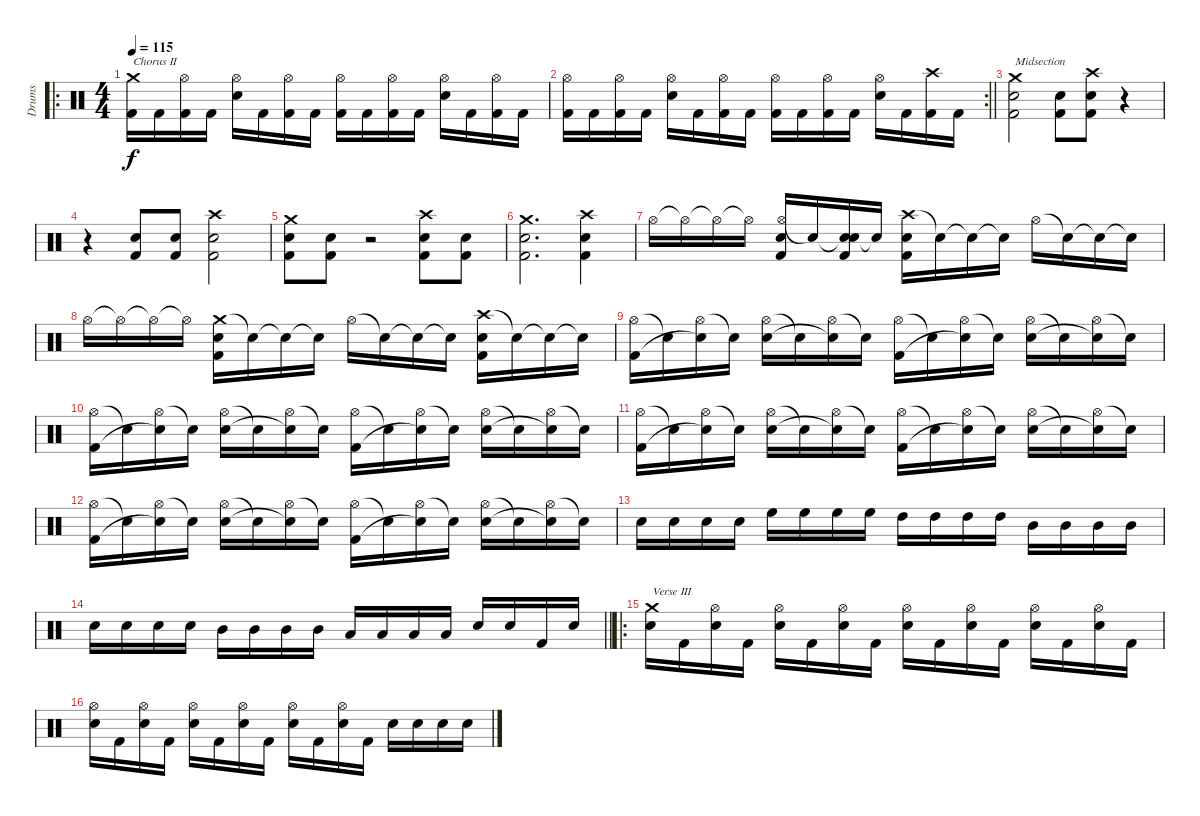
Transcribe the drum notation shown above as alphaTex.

\track ("Drums" "Drums") {instrument percussion}
\staff {score}
\articulation defaults
\ro
\ts (4 4)
\tempo 115
\clef neutral
\ks c
("Crash medium (hit)" "Kick (hit) 2").16{txt "Chorus II" dy f} "Kick (hit) 2".16 ("Hi-Hat (open)" "Kick (hit) 2").16 "Kick (hit) 2".16 ("Hi-Hat (open)" "Electric Snare (hit)").16 "Kick (hit) 2".16 ("Hi-Hat (open)" "Kick (hit) 2").16 "Kick (hit) 2".16 ("Hi-Hat (open)" "Kick (hit) 2").16 "Kick (hit) 2".16 ("Hi-Hat (open)" "Kick (hit) 2").16 "Kick (hit) 2".16 ("Hi-Hat (open)" "Electric Snare (hit)").16 "Kick (hit) 2".16 ("Hi-Hat (open)" "Kick (hit) 2").16 "Kick (hit) 2".16 |
\rc 2
\barLineRight lightlight
("Hi-Hat (open)" "Kick (hit) 2").16 "Kick (hit) 2".16 ("Hi-Hat (open)" "Kick (hit) 2").16 "Kick (hit) 2".16 ("Hi-Hat (open)" "Electric Snare (hit)").16 "Kick (hit) 2".16 ("Hi-Hat (open)" "Kick (hit) 2").16 "Kick (hit) 2".16 ("Hi-Hat (open)" "Kick (hit) 2").16 "Kick (hit) 2".16 ("Hi-Hat (open)" "Kick (hit) 2").16 "Kick (hit) 2".16 ("Hi-Hat (open)" "Electric Snare (hit)").16 "Kick (hit) 2".16 ("Crash high (hit)" "Kick (hit) 2").16 "Kick (hit) 2".16 |
("Crash medium (hit)" "Electric Snare (hit)" "Kick (hit) 2").2{txt "Midsection"} ("Electric Snare (hit)" "Kick (hit) 2").8 ("Crash high (hit)" "Electric Snare (hit)" "Kick (hit) 2").8 r.4 |
r.4 ("Electric Snare (hit)" "Kick (hit) 2").8 ("Electric Snare (hit)" "Kick (hit) 2").8 ("Crash high (hit)" "Electric Snare (hit)" "Kick (hit) 2").2 |
("Crash medium (hit)" "Electric Snare (hit)" "Kick (hit) 2").8 ("Electric Snare (hit)" "Kick (hit) 2").8 r.2 ("Crash high (hit)" "Electric Snare (hit)" "Kick (hit) 2").8 ("Electric Snare (hit)" "Kick (hit) 2").8 |
("Crash medium (hit)" "Electric Snare (hit)" "Kick (hit) 2").2{d} ("Crash high (hit)" "Electric Snare (hit)" "Kick (hit) 2").4 |
"Hi-Hat (open)".16 "Hi-Hat (open)"{t}.16 "Hi-Hat (open)"{t}.16 "Hi-Hat (open)"{t}.16 ("Hi-Hat (open)" "Electric Snare (hit)" "Kick (hit) 2").16 "Snare (hit)"{t}.16 ("Snare (hit)"{t} "Electric Snare (hit)" "Kick (hit) 2").16 "Snare (hit)"{t}.16 ("Crash high (hit)" "Electric Snare (hit)" "Kick (hit) 2").16 "Snare (hit)"{t}.16 "Snare (hit)"{t}.16 "Snare (hit)"{t}.16 "Hi-Hat (open)".16 "Snare (hit)"{t}.16 "Snare (hit)"{t}.16 "Snare (hit)"{t}.16 |
"Hi-Hat (open)".16 "Hi-Hat (open)"{t}.16 "Hi-Hat (open)"{t}.16 "Hi-Hat (open)"{t}.16 ("Crash medium (hit)" "Electric Snare (hit)" "Kick (hit) 2").16 "Snare (hit)"{t}.16 "Snare (hit)"{t}.16 "Snare (hit)"{t}.16 "Hi-Hat (open)".16 "Snare (hit)"{t}.16 "Snare (hit)"{t}.16 "Snare (hit)"{t}.16 ("Crash high (hit)" "Electric Snare (hit)" "Kick (hit) 2").16 "Snare (hit)"{t}.16 "Snare (hit)"{t}.16 "Snare (hit)"{t}.16 |
("Hi-Hat (open)" "Kick (hit) 2").16 "Snare (hit)"{t}.16 ("Hi-Hat (open)" "Snare (hit)"{t}).16 "Snare (hit)"{t}.16 ("Hi-Hat (open)" "Electric Snare (hit)").16 "Snare (hit)"{t}.16 ("Hi-Hat (open)" "Snare (hit)"{t}).16 "Snare (hit)"{t}.16 ("Hi-Hat (open)" "Kick (hit) 2").16 "Snare (hit)"{t}.16 ("Hi-Hat (open)" "Snare (hit)"{t}).16 "Snare (hit)"{t}.16 ("Hi-Hat (open)" "Electric Snare (hit)").16 "Snare (hit)"{t}.16 ("Hi-Hat (open)" "Snare (hit)"{t}).16 "Snare (hit)"{t}.16 |
("Hi-Hat (open)" "Kick (hit) 2").16 "Snare (hit)"{t}.16 ("Hi-Hat (open)" "Snare (hit)"{t}).16 "Snare (hit)"{t}.16 ("Hi-Hat (open)" "Electric Snare (hit)").16 "Snare (hit)"{t}.16 ("Hi-Hat (open)" "Snare (hit)"{t}).16 "Snare (hit)"{t}.16 ("Hi-Hat (open)" "Kick (hit) 2").16 "Snare (hit)"{t}.16 ("Hi-Hat (open)" "Snare (hit)"{t}).16 "Snare (hit)"{t}.16 ("Hi-Hat (open)" "Electric Snare (hit)").16 "Snare (hit)"{t}.16 ("Hi-Hat (open)" "Snare (hit)"{t}).16 "Snare (hit)"{t}.16 |
("Hi-Hat (open)" "Kick (hit) 2").16 "Snare (hit)"{t}.16 ("Hi-Hat (open)" "Snare (hit)"{t}).16 "Snare (hit)"{t}.16 ("Hi-Hat (open)" "Electric Snare (hit)").16 "Snare (hit)"{t}.16 ("Hi-Hat (open)" "Snare (hit)"{t}).16 "Snare (hit)"{t}.16 ("Hi-Hat (open)" "Kick (hit) 2").16 "Snare (hit)"{t}.16 ("Hi-Hat (open)" "Snare (hit)"{t}).16 "Snare (hit)"{t}.16 ("Hi-Hat (open)" "Electric Snare (hit)").16 "Snare (hit)"{t}.16 ("Hi-Hat (open)" "Snare (hit)"{t}).16 "Snare (hit)"{t}.16 |
("Hi-Hat (open)" "Kick (hit) 2").16 "Snare (hit)"{t}.16 ("Hi-Hat (open)" "Snare (hit)"{t}).16 "Snare (hit)"{t}.16 ("Hi-Hat (open)" "Electric Snare (hit)").16 "Snare (hit)"{t}.16 ("Hi-Hat (open)" "Snare (hit)"{t}).16 "Snare (hit)"{t}.16 ("Hi-Hat (open)" "Kick (hit) 2").16 "Snare (hit)"{t}.16 ("Hi-Hat (open)" "Snare (hit)"{t}).16 "Snare (hit)"{t}.16 ("Hi-Hat (open)" "Electric Snare (hit)").16 "Snare (hit)"{t}.16 ("Hi-Hat (open)" "Snare (hit)"{t}).16 "Snare (hit)"{t}.16 |
"Electric Snare (hit)".16 "Electric Snare (hit)".16 "Electric Snare (hit)".16 "Electric Snare (hit)".16 "High Floor Tom (hit)".16 "High Floor Tom (hit)".16 "High Floor Tom (hit)".16 "High Floor Tom (hit)".16 "High Tom (hit)".16 "High Tom (hit)".16 "High Tom (hit)".16 "High Tom (hit)".16 "Mid Tom (hit)".16 "Mid Tom (hit)".16 "Mid Tom (hit)".16 "Mid Tom (hit)".16 |
\barLineRight lightlight "Electric Snare (hit)".16 "Electric Snare (hit)".16 "Electric Snare (hit)".16 "Electric Snare (hit)".16 "Mid Tom (hit)".16 "Mid Tom (hit)".16 "Mid Tom (hit)".16 "Mid Tom (hit)".16 "Low Tom (hit)".16 "Low Tom (hit)".16 "Low Tom (hit)".16 "Low Tom (hit)".16 "Electric Snare (hit)".16 "Electric Snare (hit)".16 "Kick (hit) 2".16 "Electric Snare (hit)".16
|
\ro
("Crash medium (hit)" "Electric Snare (hit)").16{txt "Verse III"} "Kick (hit) 2".16 ("Hi-Hat (open)" "Electric Snare (hit)").16 "Kick (hit) 2".16 ("Hi-Hat (open)" "Electric Snare (hit)").16 "Kick (hit) 2".16 ("Hi-Hat (open)" "Electric Snare (hit)").16 "Kick (hit) 2".16 ("Hi-Hat (open)" "Electric Snare (hit)").16 "Kick (hit) 2".16 ("Hi-Hat (open)" "Electric Snare (hit)").16 "Kick (hit) 2".16 ("Hi-Hat (open)" "Electric Snare (hit)").16 "Kick (hit) 2".16 ("Hi-Hat (open)" "Electric Snare (hit)").16 "Kick (hit) 2".16 |
("Hi-Hat (open)" "Electric Snare (hit)").16 "Kick (hit) 2".16 ("Hi-Hat (open)" "Electric Snare (hit)").16 "Kick (hit) 2".16 ("Hi-Hat (open)" "Electric Snare (hit)").16 "Kick (hit) 2".16 ("Hi-Hat (open)" "Electric Snare (hit)").16 "Kick (hit) 2".16 ("Hi-Hat (open)" "Electric Snare (hit)").16 "Kick (hit) 2".16 ("Hi-Hat (open)" "Electric Snare (hit)").16 "Kick (hit) 2".16 "Electric Snare (hit)".16 "Electric Snare (hit)".16 "Electric Snare (hit)".16 "Electric Snare (hit)".16
